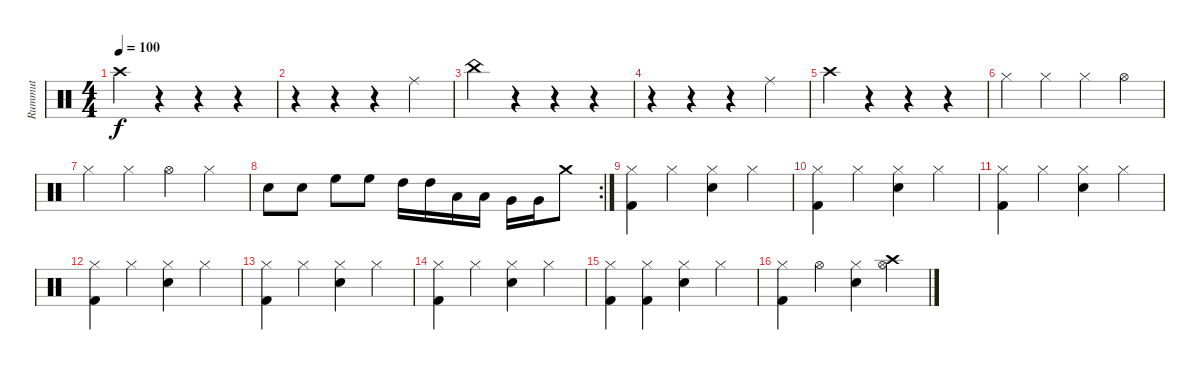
\track ("Rummut" "Rummut") {instrument percussion}
\staff {score}
\articulation defaults
\ts (4 4)
\tempo 100
\clef neutral
\ks c "Crash high (hit)".4{dy f}
r.4 r.4 r.4 |
r.4 r.4 r.4 "Ride (middle)".4 |
"China (hit)".4 r.4 r.4 r.4 |
r.4 r.4 r.4 "Ride (middle)".4 |
"Crash high (hit)".4 r.4 r.4 r.4 |
"Hi-Hat (closed)".4 "Hi-Hat (closed)".4 "Hi-Hat (closed)".4 "Hi-Hat (open)".4 |
"Hi-Hat (closed)".4 "Hi-Hat (closed)".4 "Hi-Hat (open)".4 "Hi-Hat (closed)".4 |
\rc 2 "Snare (hit) 2".8 "Snare (hit) 2".8 "High Floor Tom (hit)".8 "High Floor Tom (hit)".8 "High Tom (hit)".16 "High Tom (hit)".16 "Low Tom (hit)".16 "Low Tom (hit)".16 "Very Low Tom (hit)".16 "Very Low Tom (hit)".16 "Crash medium (hit)".8
|
("Hi-Hat (closed)" "Kick (hit) 2").4 "Hi-Hat (closed)".4 ("Hi-Hat (closed)" "Snare (hit) 2").4 "Hi-Hat (closed)".4 |
("Hi-Hat (closed)" "Kick (hit) 2").4 "Hi-Hat (closed)".4 ("Hi-Hat (closed)" "Snare (hit) 2").4 "Hi-Hat (closed)".4 |
("Hi-Hat (closed)" "Kick (hit) 2").4 "Hi-Hat (closed)".4 ("Hi-Hat (closed)" "Snare (hit) 2").4 "Hi-Hat (closed)".4 |
("Hi-Hat (closed)" "Kick (hit) 2").4 "Hi-Hat (closed)".4 ("Hi-Hat (closed)" "Snare (hit) 2").4 "Hi-Hat (closed)".4 |
("Hi-Hat (closed)" "Kick (hit) 2").4 "Hi-Hat (closed)".4 ("Hi-Hat (closed)" "Snare (hit) 2").4 "Hi-Hat (closed)".4 |
("Hi-Hat (closed)" "Kick (hit) 2").4 "Hi-Hat (closed)".4 ("Hi-Hat (closed)" "Snare (hit) 2").4 "Hi-Hat (closed)".4 |
("Hi-Hat (closed)" "Kick (hit) 2").4 ("Hi-Hat (closed)" "Kick (hit) 2").4 ("Hi-Hat (closed)" "Snare (hit) 2").4 "Hi-Hat (closed)".4 |
("Hi-Hat (closed)" "Kick (hit) 2").4 "Hi-Hat (open)".4 ("Hi-Hat (closed)" "Snare (hit) 2").4 ("Hi-Hat (open)" "Crash high (hit)").4
